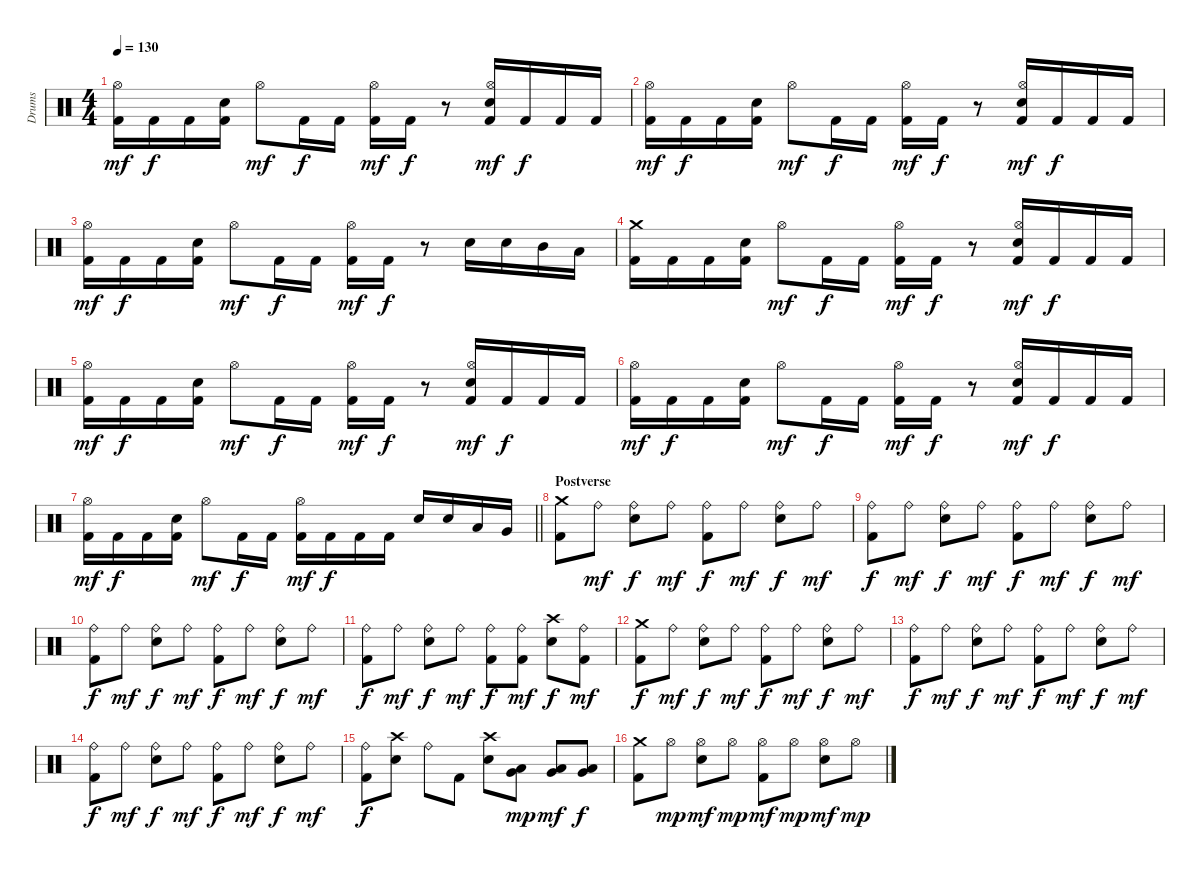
\track ("Drums" "Drums") {instrument percussion}
\staff {score}
\articulation defaults
\ts (4 4)
\tempo 130
\clef neutral
\ks c
("Kick (hit) 2" "Hi-Hat (open)").16{dy mf} "Kick (hit) 2".16{dy f} "Kick (hit) 2".16 ("Kick (hit) 2" "Electric Snare (hit)").16 "Hi-Hat (open)".8{dy mf} "Kick (hit) 2".16{dy f} "Kick (hit) 2".16 ("Kick (hit) 2" "Hi-Hat (open)").16{dy mf} "Kick (hit) 2".16{dy f} r.8 ("Kick (hit) 2" "Hi-Hat (open)" "Electric Snare (hit)").16{dy mf} "Kick (hit) 2".16{dy f} "Kick (hit) 2".16 "Kick (hit) 2".16 |
("Kick (hit) 2" "Hi-Hat (open)").16{dy mf} "Kick (hit) 2".16{dy f} "Kick (hit) 2".16 ("Kick (hit) 2" "Electric Snare (hit)").16 "Hi-Hat (open)".8{dy mf} "Kick (hit) 2".16{dy f} "Kick (hit) 2".16 ("Kick (hit) 2" "Hi-Hat (open)").16{dy mf} "Kick (hit) 2".16{dy f} r.8 ("Kick (hit) 2" "Hi-Hat (open)" "Electric Snare (hit)").16{dy mf} "Kick (hit) 2".16{dy f} "Kick (hit) 2".16 "Kick (hit) 2".16 |
("Kick (hit) 2" "Hi-Hat (open)").16{dy mf} "Kick (hit) 2".16{dy f} "Kick (hit) 2".16 ("Kick (hit) 2" "Electric Snare (hit)").16 "Hi-Hat (open)".8{dy mf} "Kick (hit) 2".16{dy f} "Kick (hit) 2".16 ("Kick (hit) 2" "Hi-Hat (open)").16{dy mf} "Kick (hit) 2".16{dy f} r.8 "Electric Snare (hit)".16 "Electric Snare (hit)".16 "Mid Tom (hit)".16 "Low Tom (hit)".16 |
("Kick (hit) 2" "Crash medium (hit)").16 "Kick (hit) 2".16 "Kick (hit) 2".16 ("Kick (hit) 2" "Electric Snare (hit)").16 "Hi-Hat (open)".8{dy mf} "Kick (hit) 2".16{dy f} "Kick (hit) 2".16 ("Kick (hit) 2" "Hi-Hat (open)").16{dy mf} "Kick (hit) 2".16{dy f} r.8 ("Kick (hit) 2" "Hi-Hat (open)" "Electric Snare (hit)").16{dy mf} "Kick (hit) 2".16{dy f} "Kick (hit) 2".16 "Kick (hit) 2".16 |
("Kick (hit) 2" "Hi-Hat (open)").16{dy mf} "Kick (hit) 2".16{dy f} "Kick (hit) 2".16 ("Kick (hit) 2" "Electric Snare (hit)").16 "Hi-Hat (open)".8{dy mf} "Kick (hit) 2".16{dy f} "Kick (hit) 2".16 ("Kick (hit) 2" "Hi-Hat (open)").16{dy mf} "Kick (hit) 2".16{dy f} r.8 ("Kick (hit) 2" "Hi-Hat (open)" "Electric Snare (hit)").16{dy mf} "Kick (hit) 2".16{dy f} "Kick (hit) 2".16 "Kick (hit) 2".16 |
("Kick (hit) 2" "Hi-Hat (open)").16{dy mf} "Kick (hit) 2".16{dy f} "Kick (hit) 2".16 ("Kick (hit) 2" "Electric Snare (hit)").16 "Hi-Hat (open)".8{dy mf} "Kick (hit) 2".16{dy f} "Kick (hit) 2".16 ("Kick (hit) 2" "Hi-Hat (open)").16{dy mf} "Kick (hit) 2".16{dy f} r.8 ("Kick (hit) 2" "Hi-Hat (open)" "Electric Snare (hit)").16{dy mf} "Kick (hit) 2".16{dy f} "Kick (hit) 2".16 "Kick (hit) 2".16 |
\barLineRight lightlight
("Kick (hit) 2" "Hi-Hat (open)").16{dy mf} "Kick (hit) 2".16{dy f} "Kick (hit) 2".16 ("Kick (hit) 2" "Electric Snare (hit)").16 "Hi-Hat (open)".8{dy mf} "Kick (hit) 2".16{dy f} "Kick (hit) 2".16 ("Kick (hit) 2" "Hi-Hat (open)").16{dy mf} "Kick (hit) 2".16{dy f} "Kick (hit) 2".16 "Kick (hit) 2".16 "Electric Snare (hit)".16 "Electric Snare (hit)".16 "Low Tom (hit)".16 "Very Low Tom (hit)".16 |
\section ("" "Postverse")
("Kick (hit) 2" "Crash medium (hit)").8 "Ride (bell)".8{dy mf} ("Ride (bell)" "Electric Snare (hit)").8{dy f} "Ride (bell)".8{dy mf} ("Kick (hit) 2" "Ride (bell)").8{dy f} "Ride (bell)".8{dy mf} ("Ride (bell)" "Electric Snare (hit)").8{dy f} "Ride (bell)".8{dy mf} |
("Kick (hit) 2" "Ride (bell)").8{dy f} "Ride (bell)".8{dy mf} ("Ride (bell)" "Electric Snare (hit)").8{dy f} "Ride (bell)".8{dy mf} ("Kick (hit) 2" "Ride (bell)").8{dy f} "Ride (bell)".8{dy mf} ("Ride (bell)" "Electric Snare (hit)").8{dy f} "Ride (bell)".8{dy mf} |
("Kick (hit) 2" "Ride (bell)").8{dy f} "Ride (bell)".8{dy mf} ("Ride (bell)" "Electric Snare (hit)").8{dy f} "Ride (bell)".8{dy mf} ("Kick (hit) 2" "Ride (bell)").8{dy f} "Ride (bell)".8{dy mf} ("Ride (bell)" "Electric Snare (hit)").8{dy f} "Ride (bell)".8{dy mf} |
("Kick (hit) 2" "Ride (bell)").8{dy f} "Ride (bell)".8{dy mf} ("Ride (bell)" "Electric Snare (hit)").8{dy f} "Ride (bell)".8{dy mf} ("Kick (hit) 2" "Ride (bell)").8{dy f} ("Kick (hit) 2" "Ride (bell)").8{dy mf} ("Crash high (hit)" "Electric Snare (hit)").8{dy f} ("Kick (hit) 2" "Ride (bell)").8{dy mf} |
("Kick (hit) 2" "Crash medium (hit)").8{dy f} "Ride (bell)".8{dy mf} ("Ride (bell)" "Electric Snare (hit)").8{dy f} "Ride (bell)".8{dy mf} ("Kick (hit) 2" "Ride (bell)").8{dy f} "Ride (bell)".8{dy mf} ("Ride (bell)" "Electric Snare (hit)").8{dy f} "Ride (bell)".8{dy mf} |
("Kick (hit) 2" "Ride (bell)").8{dy f} "Ride (bell)".8{dy mf} ("Ride (bell)" "Electric Snare (hit)").8{dy f} "Ride (bell)".8{dy mf} ("Kick (hit) 2" "Ride (bell)").8{dy f} "Ride (bell)".8{dy mf} ("Ride (bell)" "Electric Snare (hit)").8{dy f} "Ride (bell)".8{dy mf} |
("Kick (hit) 2" "Ride (bell)").8{dy f} "Ride (bell)".8{dy mf} ("Ride (bell)" "Electric Snare (hit)").8{dy f} "Ride (bell)".8{dy mf} ("Kick (hit) 2" "Ride (bell)").8{dy f} "Ride (bell)".8{dy mf} ("Ride (bell)" "Electric Snare (hit)").8{dy f} "Ride (bell)".8{dy mf} |
("Kick (hit) 2" "Ride (bell)").8{dy f} ("Crash high (hit)" "Electric Snare (hit)").8 "Ride (bell)".8 "Kick (hit) 2".8 ("Crash high (hit)" "Electric Snare (hit)").8 ("Very Low Tom (hit)" "Low Tom (hit)").8{dy mp} ("Very Low Tom (hit)" "Low Tom (hit)").8{dy mf} ("Very Low Tom (hit)" "Low Tom (hit)").8{dy f} |
("Kick (hit) 2" "Crash medium (hit)").8 "Hi-Hat (open)".8{dy mp} ("Hi-Hat (open)" "Electric Snare (hit)").8{dy mf} "Hi-Hat (open)".8{dy mp} ("Kick (hit) 2" "Hi-Hat (open)").8{dy mf} "Hi-Hat (open)".8{dy mp} ("Hi-Hat (open)" "Electric Snare (hit)").8{dy mf} "Hi-Hat (open)".8{dy mp}
